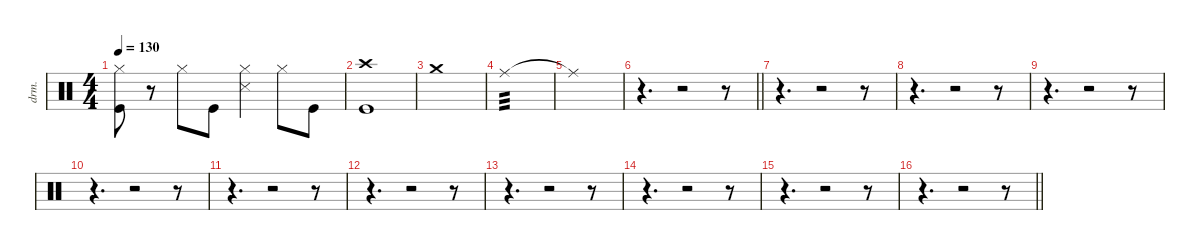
\defaultSystemsLayout 4
\hideDynamics
\bracketExtendMode nobrackets
\track ("Manouche" "drm.") {instrument percussion}
\staff {score}
\articulation defaults
\ts (4 4)
\tempo 130
\clef neutral
\ks c
("Hi-Hat (closed)" "Kick (hit)").8{dy f} r.8 "Hi-Hat (closed)".8 "Kick (hit)".8 ("Hi-Hat (closed)" "Snare (side stick) 3").4 "Hi-Hat (closed)".8 "Kick (hit)".8 |
("Crash high (hit)" "Kick (hit)").1 |
"Crash medium (hit)".1{dy mf} |
"Ride (middle)".1{tp 3 dy mp} |
"Ride (middle)"{t}.1{dy f} |
\barLineRight lightlight
r.4{d} r.2 r.8 |
r.4{d} r.2 r.8 |
r.4{d} r.2 r.8 |
r.4{d} r.2 r.8 |
r.4{d} r.2 r.8 |
r.4{d} r.2 r.8 |
r.4{d} r.2 r.8 |
r.4{d} r.2 r.8 |
r.4{d} r.2 r.8 |
r.4{d} r.2 r.8 |
\barLineRight lightlight
r.4{d} r.2 r.8
